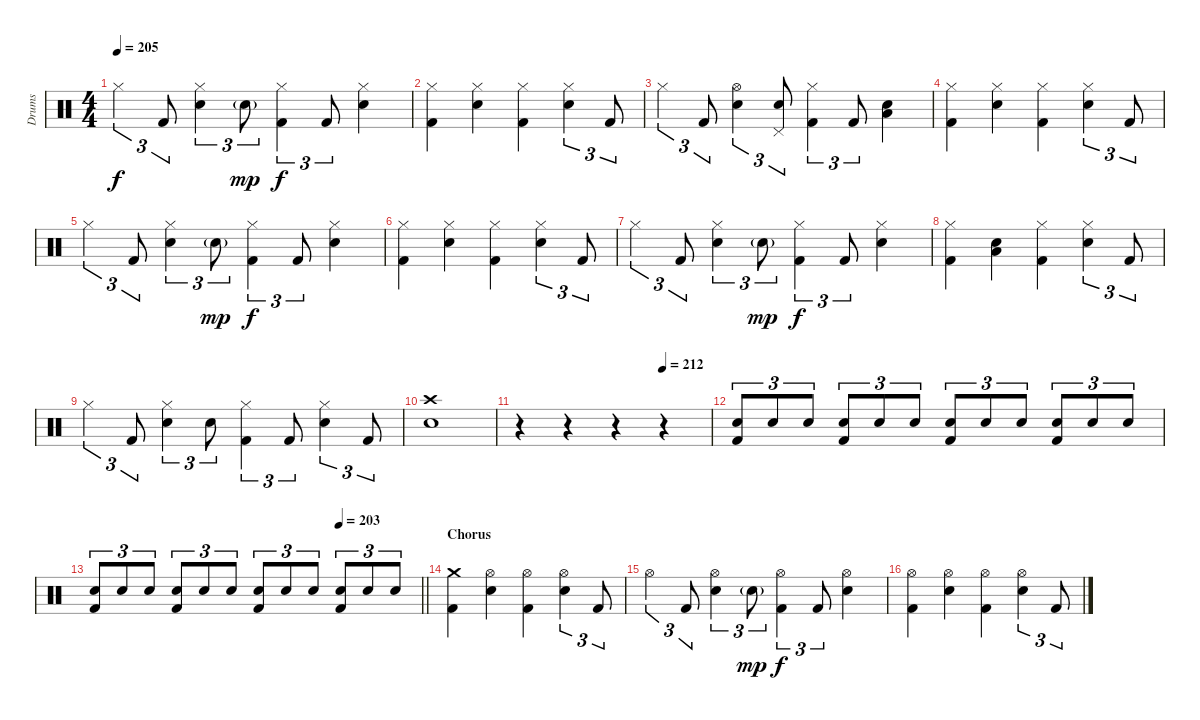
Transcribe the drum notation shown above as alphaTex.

\track ("Drums" "Drums") {instrument percussion}
\staff {score}
\articulation defaults
\ts (4 4)
\tempo 205
\clef neutral
\ks c "Hi-Hat (closed)".4{tu (3 2) dy f} "Kick (hit) 2".8{tu (3 2)}
("Hi-Hat (closed)" "Electric Snare (hit)").4{tu (3 2)} "Electric Snare (hit)"{g}.8{tu (3 2) dy mp} ("Hi-Hat (closed)" "Kick (hit) 2").4{tu (3 2) dy f} "Kick (hit) 2".8{tu (3 2)} ("Hi-Hat (closed)" "Electric Snare (hit)").4 |
("Hi-Hat (closed)" "Kick (hit) 2").4 ("Hi-Hat (closed)" "Electric Snare (hit)").4 ("Hi-Hat (closed)" "Kick (hit) 2").4 ("Hi-Hat (closed)" "Electric Snare (hit)").4{tu (3 2)} "Kick (hit) 2".8{tu (3 2)} |
"Hi-Hat (closed)".4{tu (3 2)} "Kick (hit) 2".8{tu (3 2)} ("Hi-Hat (open)" "Electric Snare (hit)").4{tu (3 2)} ("Pedal Hi-Hat (hit)" "Electric Snare (hit)").8{tu (3 2)} ("Hi-Hat (closed)" "Kick (hit) 2").4{tu (3 2)} "Kick (hit) 2".8{tu (3 2)} ("Low Floor Tom (hit)" "Electric Snare (hit)").4 |
("Hi-Hat (closed)" "Kick (hit) 2").4 ("Hi-Hat (closed)" "Electric Snare (hit)").4 ("Hi-Hat (closed)" "Kick (hit) 2").4 ("Hi-Hat (closed)" "Electric Snare (hit)").4{tu (3 2)} "Kick (hit) 2".8{tu (3 2)} |
"Hi-Hat (closed)".4{tu (3 2)} "Kick (hit) 2".8{tu (3 2)} ("Hi-Hat (closed)" "Electric Snare (hit)").4{tu (3 2)} "Electric Snare (hit)"{g}.8{tu (3 2) dy mp} ("Hi-Hat (closed)" "Kick (hit) 2").4{tu (3 2) dy f} "Kick (hit) 2".8{tu (3 2)} ("Hi-Hat (closed)" "Electric Snare (hit)").4 |
("Hi-Hat (closed)" "Kick (hit) 2").4 ("Hi-Hat (closed)" "Electric Snare (hit)").4 ("Hi-Hat (closed)" "Kick (hit) 2").4 ("Hi-Hat (closed)" "Electric Snare (hit)").4{tu (3 2)} "Kick (hit) 2".8{tu (3 2)} |
"Hi-Hat (closed)".4{tu (3 2)} "Kick (hit) 2".8{tu (3 2)} ("Hi-Hat (closed)" "Electric Snare (hit)").4{tu (3 2)} "Electric Snare (hit)"{g}.8{tu (3 2) dy mp} ("Hi-Hat (closed)" "Kick (hit) 2").4{tu (3 2) dy f} "Kick (hit) 2".8{tu (3 2)} ("Hi-Hat (closed)" "Electric Snare (hit)").4 |
("Hi-Hat (closed)" "Kick (hit) 2").4 ("Low Floor Tom (hit)" "Electric Snare (hit)").4 ("Hi-Hat (closed)" "Kick (hit) 2").4 ("Hi-Hat (closed)" "Electric Snare (hit)").4{tu (3 2)} "Kick (hit) 2".8{tu (3 2)} |
"Hi-Hat (closed)".4{tu (3 2)} "Kick (hit) 2".8{tu (3 2)} ("Hi-Hat (closed)" "Electric Snare (hit)").4{tu (3 2)} "Electric Snare (hit)".8{tu (3 2)} ("Hi-Hat (closed)" "Kick (hit) 2").4{tu (3 2)} "Kick (hit) 2".8{tu (3 2)} ("Hi-Hat (closed)" "Electric Snare (hit)").4{tu (3 2)} "Kick (hit) 2".8{tu (3 2)} |
("Crash high (hit)" "Electric Snare (hit)").1 |
\tempo (212 0.75)
r.4 r.4 r.4 r.4 |
("Electric Snare (hit)" "Kick (hit) 2").8{tu (3 2)} "Electric Snare (hit)".8{tu (3 2)} "Electric Snare (hit)".8{tu (3 2)} ("Electric Snare (hit)" "Kick (hit) 2").8{tu (3 2)} "Electric Snare (hit)".8{tu (3 2)} "Electric Snare (hit)".8{tu (3 2)} ("Electric Snare (hit)" "Kick (hit) 2").8{tu (3 2)} "Electric Snare (hit)".8{tu (3 2)} "Electric Snare (hit)".8{tu (3 2)} ("Electric Snare (hit)" "Kick (hit) 2").8{tu (3 2)} "Electric Snare (hit)".8{tu (3 2)} "Electric Snare (hit)".8{tu (3 2)} |
\tempo (203 0.75)
\barLineRight lightlight
("Electric Snare (hit)" "Kick (hit) 2").8{tu (3 2)} "Electric Snare (hit)".8{tu (3 2)} "Electric Snare (hit)".8{tu (3 2)} ("Electric Snare (hit)" "Kick (hit) 2").8{tu (3 2)} "Electric Snare (hit)".8{tu (3 2)} "Electric Snare (hit)".8{tu (3 2)} ("Electric Snare (hit)" "Kick (hit) 2").8{tu (3 2)} "Electric Snare (hit)".8{tu (3 2)} "Electric Snare (hit)".8{tu (3 2)} ("Electric Snare (hit)" "Kick (hit) 2").8{tu (3 2)} "Electric Snare (hit)".8{tu (3 2)} "Electric Snare (hit)".8{tu (3 2)} |
\section ("" "Chorus")
("Crash medium (hit)" "Kick (hit) 2").4 ("Hi-Hat (open)" "Electric Snare (hit)").4 ("Hi-Hat (open)" "Kick (hit) 2").4 ("Hi-Hat (open)" "Electric Snare (hit)").4{tu (3 2)} "Kick (hit) 2".8{tu (3 2)} |
"Hi-Hat (open)".4{tu (3 2)} "Kick (hit) 2".8{tu (3 2)} ("Hi-Hat (open)" "Electric Snare (hit)").4{tu (3 2)} "Electric Snare (hit)"{g}.8{tu (3 2) dy mp} ("Hi-Hat (open)" "Kick (hit) 2").4{tu (3 2) dy f} "Kick (hit) 2".8{tu (3 2)} ("Hi-Hat (open)" "Electric Snare (hit)").4 |
("Hi-Hat (open)" "Kick (hit) 2").4 ("Hi-Hat (open)" "Electric Snare (hit)").4 ("Hi-Hat (open)" "Kick (hit) 2").4 ("Hi-Hat (open)" "Electric Snare (hit)").4{tu (3 2)} "Kick (hit) 2".8{tu (3 2)}
